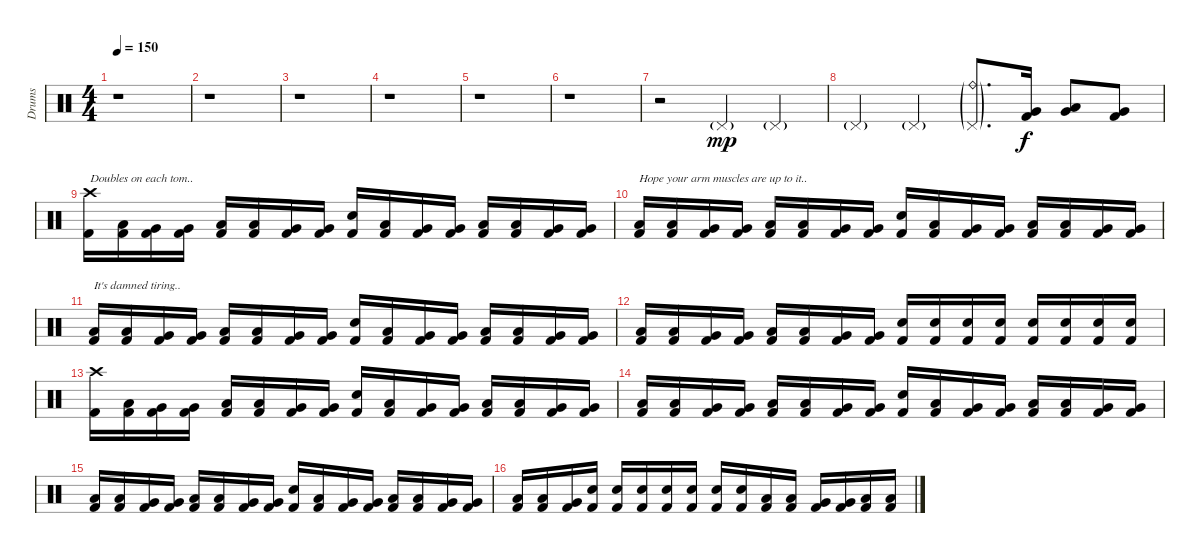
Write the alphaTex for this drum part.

\track ("Drums" "Drums") {instrument percussion}
\staff {score}
\articulation defaults
\ts (4 4)
\tempo 150
\clef neutral
\ks c
r.1{dy mp} |
r.1 |
r.1 |
r.1 |
r.1 |
r.1 |
r.2 "Pedal Hi-Hat (hit)"{g}.4 "Pedal Hi-Hat (hit)"{g}.4 |
"Pedal Hi-Hat (hit)"{g}.4 "Pedal Hi-Hat (hit)"{g}.4 ("Ride (bell)"{g} "Pedal Hi-Hat (hit)"{g}).8{d} ("Very Low Tom (hit)" "Kick (hit) 2").16{dy f} ("Low Tom (hit)" "Very Low Tom (hit)").8 ("Very Low Tom (hit)" "Kick (hit) 2").8 |
("Crash high (hit)" "Kick (hit) 2").16{txt "Doubles on each tom.."} ("Low Tom (hit)" "Kick (hit) 2").16 ("Very Low Tom (hit)" "Kick (hit) 2").16 ("Very Low Tom (hit)" "Kick (hit) 2").16 ("Low Tom (hit)" "Kick (hit) 2").16 ("Low Tom (hit)" "Kick (hit) 2").16 ("Very Low Tom (hit)" "Kick (hit) 2").16 ("Very Low Tom (hit)" "Kick (hit) 2").16 ("Snare (hit) 2" "Kick (hit) 2").16 ("Low Tom (hit)" "Kick (hit) 2").16 ("Very Low Tom (hit)" "Kick (hit) 2").16 ("Very Low Tom (hit)" "Kick (hit) 2").16 ("Low Tom (hit)" "Kick (hit) 2").16 ("Low Tom (hit)" "Kick (hit) 2").16 ("Very Low Tom (hit)" "Kick (hit) 2").16 ("Very Low Tom (hit)" "Kick (hit) 2").16 |
("Low Tom (hit)" "Kick (hit) 2").16{txt "Hope your arm muscles are up to it.."} ("Low Tom (hit)" "Kick (hit) 2").16 ("Very Low Tom (hit)" "Kick (hit) 2").16 ("Very Low Tom (hit)" "Kick (hit) 2").16 ("Low Tom (hit)" "Kick (hit) 2").16 ("Low Tom (hit)" "Kick (hit) 2").16 ("Very Low Tom (hit)" "Kick (hit) 2").16 ("Very Low Tom (hit)" "Kick (hit) 2").16 ("Snare (hit) 2" "Kick (hit) 2").16 ("Low Tom (hit)" "Kick (hit) 2").16 ("Very Low Tom (hit)" "Kick (hit) 2").16 ("Very Low Tom (hit)" "Kick (hit) 2").16 ("Low Tom (hit)" "Kick (hit) 2").16 ("Low Tom (hit)" "Kick (hit) 2").16 ("Very Low Tom (hit)" "Kick (hit) 2").16 ("Very Low Tom (hit)" "Kick (hit) 2").16 |
("Low Tom (hit)" "Kick (hit) 2").16{txt "It's damned tiring.."} ("Low Tom (hit)" "Kick (hit) 2").16 ("Very Low Tom (hit)" "Kick (hit) 2").16 ("Very Low Tom (hit)" "Kick (hit) 2").16 ("Low Tom (hit)" "Kick (hit) 2").16 ("Low Tom (hit)" "Kick (hit) 2").16 ("Very Low Tom (hit)" "Kick (hit) 2").16 ("Very Low Tom (hit)" "Kick (hit) 2").16 ("Snare (hit) 2" "Kick (hit) 2").16 ("Low Tom (hit)" "Kick (hit) 2").16 ("Very Low Tom (hit)" "Kick (hit) 2").16 ("Very Low Tom (hit)" "Kick (hit) 2").16 ("Low Tom (hit)" "Kick (hit) 2").16 ("Low Tom (hit)" "Kick (hit) 2").16 ("Very Low Tom (hit)" "Kick (hit) 2").16 ("Very Low Tom (hit)" "Kick (hit) 2").16 |
("Low Tom (hit)" "Kick (hit) 2").16 ("Low Tom (hit)" "Kick (hit) 2").16 ("Very Low Tom (hit)" "Kick (hit) 2").16 ("Very Low Tom (hit)" "Kick (hit) 2").16 ("Low Tom (hit)" "Kick (hit) 2").16 ("Low Tom (hit)" "Kick (hit) 2").16 ("Very Low Tom (hit)" "Kick (hit) 2").16 ("Very Low Tom (hit)" "Kick (hit) 2").16 ("Snare (hit) 2" "Kick (hit) 2").16 ("Snare (hit) 2" "Kick (hit) 2").16 ("Snare (hit) 2" "Kick (hit) 2").16 ("Snare (hit) 2" "Kick (hit) 2").16 ("Snare (hit) 2" "Kick (hit) 2").16 ("Snare (hit) 2" "Kick (hit) 2").16 ("Snare (hit) 2" "Kick (hit) 2").16 ("Snare (hit) 2" "Kick (hit) 2").16 |
("Crash high (hit)" "Kick (hit) 2").16 ("Low Tom (hit)" "Kick (hit) 2").16 ("Very Low Tom (hit)" "Kick (hit) 2").16 ("Very Low Tom (hit)" "Kick (hit) 2").16 ("Low Tom (hit)" "Kick (hit) 2").16 ("Low Tom (hit)" "Kick (hit) 2").16 ("Very Low Tom (hit)" "Kick (hit) 2").16 ("Very Low Tom (hit)" "Kick (hit) 2").16 ("Snare (hit) 2" "Kick (hit) 2").16 ("Low Tom (hit)" "Kick (hit) 2").16 ("Very Low Tom (hit)" "Kick (hit) 2").16 ("Very Low Tom (hit)" "Kick (hit) 2").16 ("Low Tom (hit)" "Kick (hit) 2").16 ("Low Tom (hit)" "Kick (hit) 2").16 ("Very Low Tom (hit)" "Kick (hit) 2").16 ("Very Low Tom (hit)" "Kick (hit) 2").16 |
("Low Tom (hit)" "Kick (hit) 2").16 ("Low Tom (hit)" "Kick (hit) 2").16 ("Very Low Tom (hit)" "Kick (hit) 2").16 ("Very Low Tom (hit)" "Kick (hit) 2").16 ("Low Tom (hit)" "Kick (hit) 2").16 ("Low Tom (hit)" "Kick (hit) 2").16 ("Very Low Tom (hit)" "Kick (hit) 2").16 ("Very Low Tom (hit)" "Kick (hit) 2").16 ("Snare (hit) 2" "Kick (hit) 2").16 ("Low Tom (hit)" "Kick (hit) 2").16 ("Very Low Tom (hit)" "Kick (hit) 2").16 ("Very Low Tom (hit)" "Kick (hit) 2").16 ("Low Tom (hit)" "Kick (hit) 2").16 ("Low Tom (hit)" "Kick (hit) 2").16 ("Very Low Tom (hit)" "Kick (hit) 2").16 ("Very Low Tom (hit)" "Kick (hit) 2").16 |
("Low Tom (hit)" "Kick (hit) 2").16 ("Low Tom (hit)" "Kick (hit) 2").16 ("Very Low Tom (hit)" "Kick (hit) 2").16 ("Very Low Tom (hit)" "Kick (hit) 2").16 ("Low Tom (hit)" "Kick (hit) 2").16 ("Low Tom (hit)" "Kick (hit) 2").16 ("Very Low Tom (hit)" "Kick (hit) 2").16 ("Very Low Tom (hit)" "Kick (hit) 2").16 ("Snare (hit) 2" "Kick (hit) 2").16 ("Low Tom (hit)" "Kick (hit) 2").16 ("Very Low Tom (hit)" "Kick (hit) 2").16 ("Very Low Tom (hit)" "Kick (hit) 2").16 ("Low Tom (hit)" "Kick (hit) 2").16 ("Low Tom (hit)" "Kick (hit) 2").16 ("Very Low Tom (hit)" "Kick (hit) 2").16 ("Very Low Tom (hit)" "Kick (hit) 2").16 |
("Low Tom (hit)" "Kick (hit) 2").16 ("Low Tom (hit)" "Kick (hit) 2").16 ("Very Low Tom (hit)" "Kick (hit) 2").16 ("Snare (hit) 2" "Kick (hit) 2").16 ("Snare (hit) 2" "Kick (hit) 2").16 ("Snare (hit) 2" "Kick (hit) 2").16 ("Snare (hit) 2" "Kick (hit) 2").16 ("Snare (hit) 2" "Kick (hit) 2").16 ("Snare (hit) 2" "Kick (hit) 2").16 ("Snare (hit) 2" "Kick (hit) 2").16 ("Low Tom (hit)" "Kick (hit) 2").16 ("Low Tom (hit)" "Kick (hit) 2").16 ("Very Low Tom (hit)" "Kick (hit) 2").16 ("Very Low Tom (hit)" "Kick (hit) 2").16 ("Low Floor Tom (hit)" "Kick (hit) 2").16 ("Low Floor Tom (hit)" "Kick (hit) 2").16
